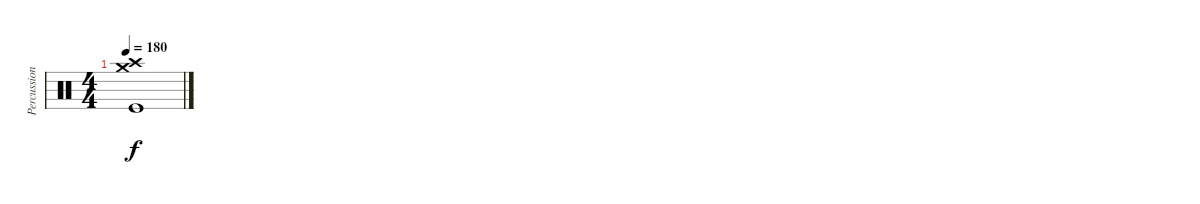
\track ("Percussion" "Percussion") {instrument percussion}
\staff {score}
\articulation defaults
\ts (4 4)
\tempo 180
\clef neutral
\ks c
("Crash medium (hit)" "Crash high (hit)" "Kick (hit)").1{dy f}
